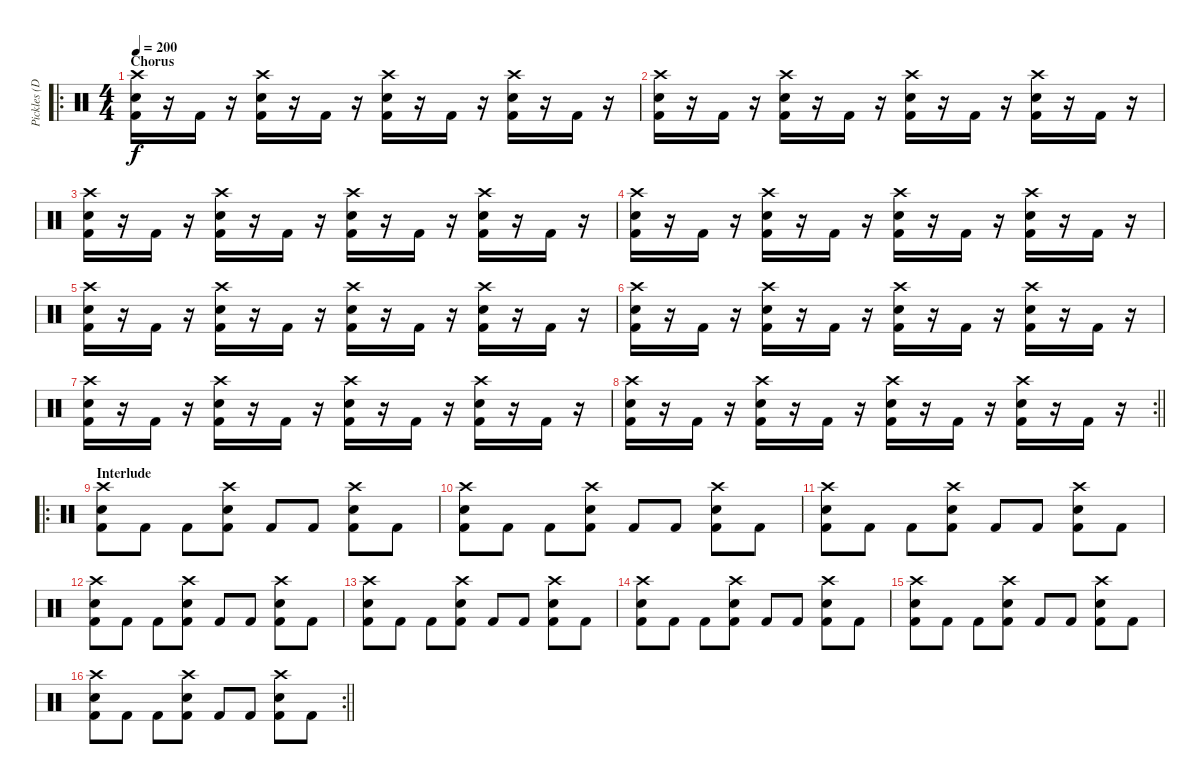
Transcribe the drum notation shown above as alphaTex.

\track ("Pickles (Drums)" "Pickles (D") {instrument percussion}
\staff {score}
\articulation defaults
\ro
\ts (4 4)
\section ("" "Chorus")
\tempo 200
\clef neutral
\ks c
("Crash high (hit)" "Electric Snare (hit)" "Kick (hit) 2").16{dy f} r.16 "Kick (hit) 2".16 r.16 ("Crash high (hit)" "Electric Snare (hit)" "Kick (hit) 2").16 r.16 "Kick (hit) 2".16 r.16 ("Crash high (hit)" "Electric Snare (hit)" "Kick (hit) 2").16 r.16 "Kick (hit) 2".16 r.16 ("Crash high (hit)" "Electric Snare (hit)" "Kick (hit) 2").16 r.16 "Kick (hit) 2".16 r.16 |
("Crash high (hit)" "Electric Snare (hit)" "Kick (hit) 2").16 r.16 "Kick (hit) 2".16 r.16 ("Crash high (hit)" "Electric Snare (hit)" "Kick (hit) 2").16 r.16 "Kick (hit) 2".16 r.16 ("Crash high (hit)" "Electric Snare (hit)" "Kick (hit) 2").16 r.16 "Kick (hit) 2".16 r.16 ("Crash high (hit)" "Electric Snare (hit)" "Kick (hit) 2").16 r.16 "Kick (hit) 2".16 r.16 |
("Crash high (hit)" "Electric Snare (hit)" "Kick (hit) 2").16 r.16 "Kick (hit) 2".16 r.16 ("Crash high (hit)" "Electric Snare (hit)" "Kick (hit) 2").16 r.16 "Kick (hit) 2".16 r.16 ("Crash high (hit)" "Electric Snare (hit)" "Kick (hit) 2").16 r.16 "Kick (hit) 2".16 r.16 ("Crash high (hit)" "Electric Snare (hit)" "Kick (hit) 2").16 r.16 "Kick (hit) 2".16 r.16 |
("Crash high (hit)" "Electric Snare (hit)" "Kick (hit) 2").16 r.16 "Kick (hit) 2".16 r.16 ("Crash high (hit)" "Electric Snare (hit)" "Kick (hit) 2").16 r.16 "Kick (hit) 2".16 r.16 ("Crash high (hit)" "Electric Snare (hit)" "Kick (hit) 2").16 r.16 "Kick (hit) 2".16 r.16 ("Crash high (hit)" "Electric Snare (hit)" "Kick (hit) 2").16 r.16 "Kick (hit) 2".16 r.16 |
("Crash high (hit)" "Electric Snare (hit)" "Kick (hit) 2").16 r.16 "Kick (hit) 2".16 r.16 ("Crash high (hit)" "Electric Snare (hit)" "Kick (hit) 2").16 r.16 "Kick (hit) 2".16 r.16 ("Crash high (hit)" "Electric Snare (hit)" "Kick (hit) 2").16 r.16 "Kick (hit) 2".16 r.16 ("Crash high (hit)" "Electric Snare (hit)" "Kick (hit) 2").16 r.16 "Kick (hit) 2".16 r.16 |
("Crash high (hit)" "Electric Snare (hit)" "Kick (hit) 2").16 r.16 "Kick (hit) 2".16 r.16 ("Crash high (hit)" "Electric Snare (hit)" "Kick (hit) 2").16 r.16 "Kick (hit) 2".16 r.16 ("Crash high (hit)" "Electric Snare (hit)" "Kick (hit) 2").16 r.16 "Kick (hit) 2".16 r.16 ("Crash high (hit)" "Electric Snare (hit)" "Kick (hit) 2").16 r.16 "Kick (hit) 2".16 r.16 |
("Crash high (hit)" "Electric Snare (hit)" "Kick (hit) 2").16 r.16 "Kick (hit) 2".16 r.16 ("Crash high (hit)" "Electric Snare (hit)" "Kick (hit) 2").16 r.16 "Kick (hit) 2".16 r.16 ("Crash high (hit)" "Electric Snare (hit)" "Kick (hit) 2").16 r.16 "Kick (hit) 2".16 r.16 ("Crash high (hit)" "Electric Snare (hit)" "Kick (hit) 2").16 r.16 "Kick (hit) 2".16 r.16 |
\rc 2
\barLineRight lightlight
("Crash high (hit)" "Electric Snare (hit)" "Kick (hit) 2").16 r.16 "Kick (hit) 2".16 r.16 ("Crash high (hit)" "Electric Snare (hit)" "Kick (hit) 2").16 r.16 "Kick (hit) 2".16 r.16 ("Crash high (hit)" "Electric Snare (hit)" "Kick (hit) 2").16 r.16 "Kick (hit) 2".16 r.16 ("Crash high (hit)" "Electric Snare (hit)" "Kick (hit) 2").16 r.16 "Kick (hit) 2".16 r.16 |
\ro
\section ("" "Interlude")
("Crash high (hit)" "Electric Snare (hit)" "Kick (hit) 2").8 "Kick (hit) 2".8 "Kick (hit) 2".8 ("Crash high (hit)" "Electric Snare (hit)" "Kick (hit) 2").8 "Kick (hit) 2".8 "Kick (hit) 2".8 ("Crash high (hit)" "Electric Snare (hit)" "Kick (hit) 2").8 "Kick (hit) 2".8 |
("Crash high (hit)" "Electric Snare (hit)" "Kick (hit) 2").8 "Kick (hit) 2".8 "Kick (hit) 2".8 ("Crash high (hit)" "Electric Snare (hit)" "Kick (hit) 2").8 "Kick (hit) 2".8 "Kick (hit) 2".8 ("Crash high (hit)" "Electric Snare (hit)" "Kick (hit) 2").8 "Kick (hit) 2".8 |
("Crash high (hit)" "Electric Snare (hit)" "Kick (hit) 2").8 "Kick (hit) 2".8 "Kick (hit) 2".8 ("Crash high (hit)" "Electric Snare (hit)" "Kick (hit) 2").8 "Kick (hit) 2".8 "Kick (hit) 2".8 ("Crash high (hit)" "Electric Snare (hit)" "Kick (hit) 2").8 "Kick (hit) 2".8 |
("Crash high (hit)" "Electric Snare (hit)" "Kick (hit) 2").8 "Kick (hit) 2".8 "Kick (hit) 2".8 ("Crash high (hit)" "Electric Snare (hit)" "Kick (hit) 2").8 "Kick (hit) 2".8 "Kick (hit) 2".8 ("Crash high (hit)" "Electric Snare (hit)" "Kick (hit) 2").8 "Kick (hit) 2".8 |
("Crash high (hit)" "Electric Snare (hit)" "Kick (hit) 2").8 "Kick (hit) 2".8 "Kick (hit) 2".8 ("Crash high (hit)" "Electric Snare (hit)" "Kick (hit) 2").8 "Kick (hit) 2".8 "Kick (hit) 2".8 ("Crash high (hit)" "Electric Snare (hit)" "Kick (hit) 2").8 "Kick (hit) 2".8 |
("Crash high (hit)" "Electric Snare (hit)" "Kick (hit) 2").8 "Kick (hit) 2".8 "Kick (hit) 2".8 ("Crash high (hit)" "Electric Snare (hit)" "Kick (hit) 2").8 "Kick (hit) 2".8 "Kick (hit) 2".8 ("Crash high (hit)" "Electric Snare (hit)" "Kick (hit) 2").8 "Kick (hit) 2".8 |
("Crash high (hit)" "Electric Snare (hit)" "Kick (hit) 2").8 "Kick (hit) 2".8 "Kick (hit) 2".8 ("Crash high (hit)" "Electric Snare (hit)" "Kick (hit) 2").8 "Kick (hit) 2".8 "Kick (hit) 2".8 ("Crash high (hit)" "Electric Snare (hit)" "Kick (hit) 2").8 "Kick (hit) 2".8 |
\rc 2
\barLineRight lightlight
("Crash high (hit)" "Electric Snare (hit)" "Kick (hit) 2").8 "Kick (hit) 2".8 "Kick (hit) 2".8 ("Crash high (hit)" "Electric Snare (hit)" "Kick (hit) 2").8 "Kick (hit) 2".8 "Kick (hit) 2".8 ("Crash high (hit)" "Electric Snare (hit)" "Kick (hit) 2").8 "Kick (hit) 2".8
